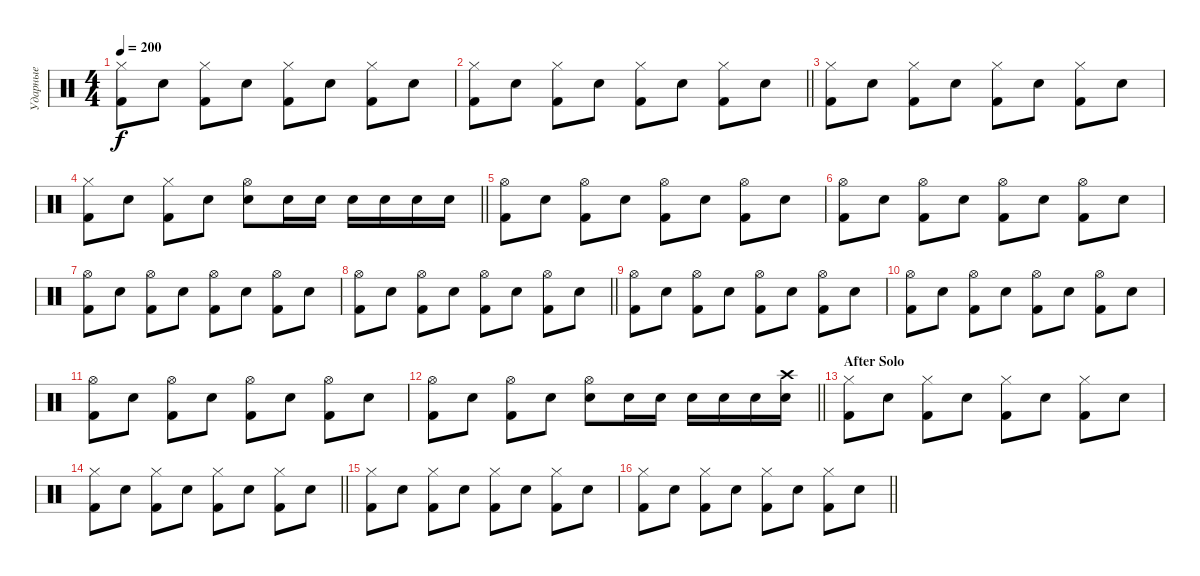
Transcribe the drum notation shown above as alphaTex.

\track ("Ударные" "Ударные") {instrument percussion}
\staff {score}
\articulation defaults
\ts (4 4)
\tempo 200
\clef neutral
\ks c
("Hi-Hat (closed)" "Kick (hit) 2").8{dy f} "Snare (hit) 2".8 ("Hi-Hat (closed)" "Kick (hit) 2").8 "Snare (hit) 2".8 ("Hi-Hat (closed)" "Kick (hit) 2").8 "Snare (hit) 2".8 ("Hi-Hat (closed)" "Kick (hit) 2").8 "Snare (hit) 2".8 |
\barLineRight lightlight
("Hi-Hat (closed)" "Kick (hit) 2").8 "Snare (hit) 2".8 ("Hi-Hat (closed)" "Kick (hit) 2").8 "Snare (hit) 2".8 ("Hi-Hat (closed)" "Kick (hit) 2").8 "Snare (hit) 2".8 ("Hi-Hat (closed)" "Kick (hit) 2").8 "Snare (hit) 2".8 |
("Hi-Hat (closed)" "Kick (hit) 2").8 "Snare (hit) 2".8 ("Hi-Hat (closed)" "Kick (hit) 2").8 "Snare (hit) 2".8 ("Hi-Hat (closed)" "Kick (hit) 2").8 "Snare (hit) 2".8 ("Hi-Hat (closed)" "Kick (hit) 2").8 "Snare (hit) 2".8 |
\barLineRight lightlight
("Hi-Hat (closed)" "Kick (hit) 2").8 "Snare (hit) 2".8 ("Hi-Hat (closed)" "Kick (hit) 2").8 "Snare (hit) 2".8 ("Hi-Hat (open)" "Snare (hit) 2").8 "Snare (hit) 2".16 "Snare (hit) 2".16 "Snare (hit) 2".16 "Snare (hit) 2".16 "Snare (hit) 2".16 "Snare (hit) 2".16 |
("Hi-Hat (open)" "Kick (hit) 2").8 "Snare (hit) 2".8 ("Hi-Hat (open)" "Kick (hit) 2").8 "Snare (hit) 2".8 ("Hi-Hat (open)" "Kick (hit) 2").8 "Snare (hit) 2".8 ("Hi-Hat (open)" "Kick (hit) 2").8 "Snare (hit) 2".8 |
("Hi-Hat (open)" "Kick (hit) 2").8 "Snare (hit) 2".8 ("Hi-Hat (open)" "Kick (hit) 2").8 "Snare (hit) 2".8 ("Hi-Hat (open)" "Kick (hit) 2").8 "Snare (hit) 2".8 ("Hi-Hat (open)" "Kick (hit) 2").8 "Snare (hit) 2".8 |
("Hi-Hat (open)" "Kick (hit) 2").8 "Snare (hit) 2".8 ("Hi-Hat (open)" "Kick (hit) 2").8 "Snare (hit) 2".8 ("Hi-Hat (open)" "Kick (hit) 2").8 "Snare (hit) 2".8 ("Hi-Hat (open)" "Kick (hit) 2").8 "Snare (hit) 2".8 |
\barLineRight lightlight
("Hi-Hat (open)" "Kick (hit) 2").8 "Snare (hit) 2".8 ("Hi-Hat (open)" "Kick (hit) 2").8 "Snare (hit) 2".8 ("Hi-Hat (open)" "Kick (hit) 2").8 "Snare (hit) 2".8 ("Hi-Hat (open)" "Kick (hit) 2").8 "Snare (hit) 2".8 |
("Hi-Hat (open)" "Kick (hit) 2").8 "Snare (hit) 2".8 ("Hi-Hat (open)" "Kick (hit) 2").8 "Snare (hit) 2".8 ("Hi-Hat (open)" "Kick (hit) 2").8 "Snare (hit) 2".8 ("Hi-Hat (open)" "Kick (hit) 2").8 "Snare (hit) 2".8 |
("Hi-Hat (open)" "Kick (hit) 2").8 "Snare (hit) 2".8 ("Hi-Hat (open)" "Kick (hit) 2").8 "Snare (hit) 2".8 ("Hi-Hat (open)" "Kick (hit) 2").8 "Snare (hit) 2".8 ("Hi-Hat (open)" "Kick (hit) 2").8 "Snare (hit) 2".8 |
("Hi-Hat (open)" "Kick (hit) 2").8 "Snare (hit) 2".8 ("Hi-Hat (open)" "Kick (hit) 2").8 "Snare (hit) 2".8 ("Hi-Hat (open)" "Kick (hit) 2").8 "Snare (hit) 2".8 ("Hi-Hat (open)" "Kick (hit) 2").8 "Snare (hit) 2".8 |
\barLineRight lightlight
("Hi-Hat (open)" "Kick (hit) 2").8 "Snare (hit) 2".8 ("Hi-Hat (open)" "Kick (hit) 2").8 "Snare (hit) 2".8 ("Hi-Hat (open)" "Snare (hit) 2").8 "Snare (hit) 2".16 "Snare (hit) 2".16 "Snare (hit) 2".16 "Snare (hit) 2".16 "Snare (hit) 2".16 ("Crash high (hit)" "Snare (hit) 2").16 |
\section ("" "After Solo")
("Hi-Hat (closed)" "Kick (hit) 2").8 "Snare (hit) 2".8 ("Hi-Hat (closed)" "Kick (hit) 2").8 "Snare (hit) 2".8 ("Hi-Hat (closed)" "Kick (hit) 2").8 "Snare (hit) 2".8 ("Hi-Hat (closed)" "Kick (hit) 2").8 "Snare (hit) 2".8 |
\barLineRight lightlight
("Hi-Hat (closed)" "Kick (hit) 2").8 "Snare (hit) 2".8 ("Hi-Hat (closed)" "Kick (hit) 2").8 "Snare (hit) 2".8 ("Hi-Hat (closed)" "Kick (hit) 2").8 "Snare (hit) 2".8 ("Hi-Hat (closed)" "Kick (hit) 2").8 "Snare (hit) 2".8 |
("Hi-Hat (closed)" "Kick (hit) 2").8 "Snare (hit) 2".8 ("Hi-Hat (closed)" "Kick (hit) 2").8 "Snare (hit) 2".8 ("Hi-Hat (closed)" "Kick (hit) 2").8 "Snare (hit) 2".8 ("Hi-Hat (closed)" "Kick (hit) 2").8 "Snare (hit) 2".8 |
\barLineRight lightlight
("Hi-Hat (closed)" "Kick (hit) 2").8 "Snare (hit) 2".8 ("Hi-Hat (closed)" "Kick (hit) 2").8 "Snare (hit) 2".8 ("Hi-Hat (closed)" "Kick (hit) 2").8 "Snare (hit) 2".8 ("Hi-Hat (closed)" "Kick (hit) 2").8 "Snare (hit) 2".8
